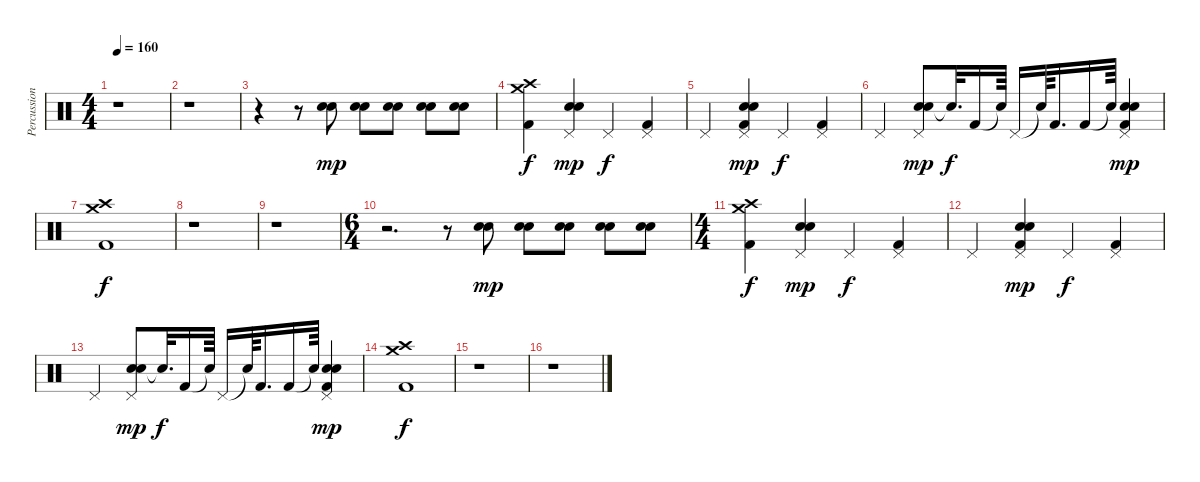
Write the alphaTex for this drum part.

\track ("Percussion" "Percussion") {instrument percussion}
\staff {score}
\articulation defaults
\ts (4 4)
\tempo 160
\clef neutral
\ks c
r.1{dy fff} |
r.1 |
r.4 r.8 ("Snare (hit) 2" "Electric Snare (hit)").8{dy mp} ("Snare (hit) 2" "Electric Snare (hit)").8 ("Snare (hit) 2" "Electric Snare (hit)").8 ("Snare (hit) 2" "Electric Snare (hit)").8 ("Snare (hit) 2" "Electric Snare (hit)").8 |
("Crash medium (hit)" "Kick (hit) 2" "Crash high (hit)").4{dy f} ("Snare (hit) 2" "Electric Snare (hit)" "Pedal Hi-Hat (hit)").4{dy mp} "Pedal Hi-Hat (hit)".4{dy f} ("Pedal Hi-Hat (hit)" "Kick (hit) 2").4 |
"Pedal Hi-Hat (hit)".4 ("Snare (hit) 2" "Pedal Hi-Hat (hit)" "Kick (hit) 2" "Electric Snare (hit)").4{dy mp} "Pedal Hi-Hat (hit)".4{dy f} ("Kick (hit) 2" "Pedal Hi-Hat (hit)").4 |
"Pedal Hi-Hat (hit)".4 ("Snare (hit) 2" "Electric Snare (hit)" "Pedal Hi-Hat (hit)").8{dy mp} "Snare (hit)"{t}.32{d dy f} "Kick (hit) 2".16 "Snare (hit)"{t}.64 "Pedal Hi-Hat (hit)".16 "Snare (hit)"{t}.64 "Kick (hit) 2".16{d} "Kick (hit) 2".16 "Snare (hit)"{t}.64 ("Snare (hit) 2" "Electric Snare (hit)" "Pedal Hi-Hat (hit)" "Kick (hit) 2").4{dy mp} |
("Kick (hit) 2" "Crash high (hit)" "Crash medium (hit)").1{dy f} |
r.1 |
r.1 |
\ts (6 4)
r.2{d} r.8 ("Snare (hit) 2" "Electric Snare (hit)").8{dy mp} ("Snare (hit) 2" "Electric Snare (hit)").8 ("Snare (hit) 2" "Electric Snare (hit)").8 ("Snare (hit) 2" "Electric Snare (hit)").8 ("Snare (hit) 2" "Electric Snare (hit)").8 |
\ts (4 4)
("Crash medium (hit)" "Kick (hit) 2" "Crash high (hit)").4{dy f} ("Snare (hit) 2" "Electric Snare (hit)" "Pedal Hi-Hat (hit)").4{dy mp} "Pedal Hi-Hat (hit)".4{dy f} ("Pedal Hi-Hat (hit)" "Kick (hit) 2").4 |
"Pedal Hi-Hat (hit)".4 ("Snare (hit) 2" "Pedal Hi-Hat (hit)" "Kick (hit) 2" "Electric Snare (hit)").4{dy mp} "Pedal Hi-Hat (hit)".4{dy f} ("Kick (hit) 2" "Pedal Hi-Hat (hit)").4 |
"Pedal Hi-Hat (hit)".4 ("Snare (hit) 2" "Electric Snare (hit)" "Pedal Hi-Hat (hit)").8{dy mp} "Snare (hit)"{t}.32{d dy f} "Kick (hit) 2".16 "Snare (hit)"{t}.64 "Pedal Hi-Hat (hit)".16 "Snare (hit)"{t}.64 "Kick (hit) 2".16{d} "Kick (hit) 2".16 "Snare (hit)"{t}.64 ("Snare (hit) 2" "Electric Snare (hit)" "Pedal Hi-Hat (hit)" "Kick (hit) 2").4{dy mp} |
("Kick (hit) 2" "Crash high (hit)" "Crash medium (hit)").1{dy f} |
r.1 |
r.1
